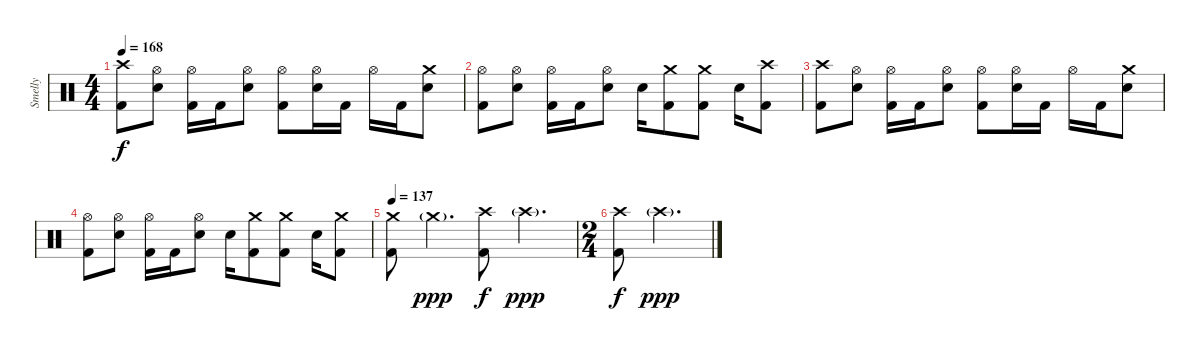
\track ("Smelly" "Smelly") {instrument percussion}
\staff {score}
\articulation defaults
\ts (4 4)
\section ("" "")
\tempo 168
\clef neutral
\ks c
("Crash high (hit)" "Kick (hit) 2").8{dy f} ("Hi-Hat (open)" "Electric Snare (hit)").8 ("Hi-Hat (open)" "Kick (hit) 2").16 "Kick (hit) 2".16 ("Hi-Hat (open)" "Electric Snare (hit)").8 ("Hi-Hat (open)" "Kick (hit) 2").8 ("Hi-Hat (open)" "Electric Snare (hit)").16 "Kick (hit) 2".16 "Hi-Hat (open)".16 "Kick (hit) 2".16 ("Crash medium (hit)" "Electric Snare (hit)").8 |
("Hi-Hat (open)" "Kick (hit) 2").8 ("Hi-Hat (open)" "Electric Snare (hit)").8 ("Hi-Hat (open)" "Kick (hit) 2").16 "Kick (hit) 2".16 ("Hi-Hat (open)" "Electric Snare (hit)").8 "Electric Snare (hit)".16 ("Crash medium (hit)" "Kick (hit) 2").8 ("Crash medium (hit)" "Kick (hit) 2").8 "Electric Snare (hit)".16 ("Crash high (hit)" "Kick (hit) 2").8 |
("Crash high (hit)" "Kick (hit) 2").8 ("Hi-Hat (open)" "Electric Snare (hit)").8 ("Hi-Hat (open)" "Kick (hit) 2").16 "Kick (hit) 2".16 ("Hi-Hat (open)" "Electric Snare (hit)").8 ("Hi-Hat (open)" "Kick (hit) 2").8 ("Hi-Hat (open)" "Electric Snare (hit)").16 "Kick (hit) 2".16 "Hi-Hat (open)".16 "Kick (hit) 2".16 ("Crash medium (hit)" "Electric Snare (hit)").8 |
("Hi-Hat (open)" "Kick (hit) 2").8 ("Hi-Hat (open)" "Electric Snare (hit)").8 ("Hi-Hat (open)" "Kick (hit) 2").16 "Kick (hit) 2".16 ("Hi-Hat (open)" "Electric Snare (hit)").8 "Electric Snare (hit)".16 ("Crash medium (hit)" "Kick (hit) 2").8 ("Crash medium (hit)" "Kick (hit) 2").8 "Electric Snare (hit)".16 ("Crash medium (hit)" "Kick (hit) 2").8 |
\tempo 137
("Crash medium (hit)" "Kick (hit) 2").8 "Crash medium (hit)"{g}.4{d dy ppp} ("Crash high (hit)" "Kick (hit) 2").8{dy f} "Crash high (hit)"{g}.4{d dy ppp} |
\ts (2 4)
("Crash high (hit)" "Kick (hit) 2").8{dy f} "Crash high (hit)"{g}.4{d dy ppp}
